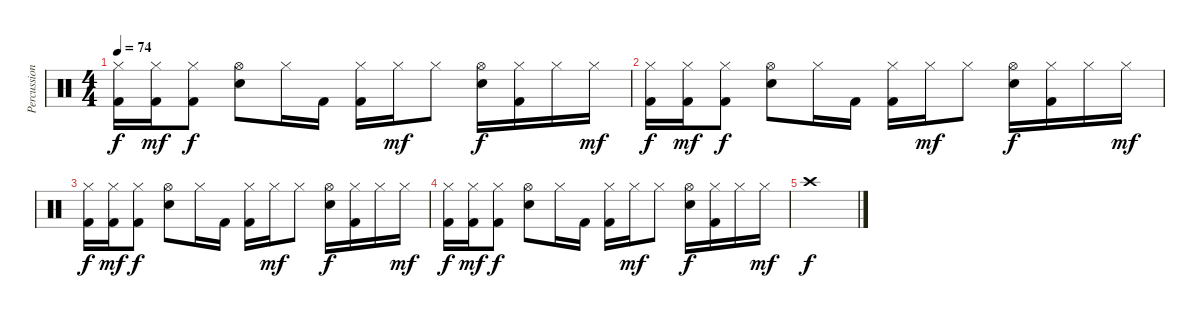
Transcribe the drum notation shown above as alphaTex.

\track ("Percussion" "Percussion") {instrument percussion}
\staff {score}
\articulation defaults
\ts (4 4)
\tempo 74
\clef neutral
\ks c
("Hi-Hat (closed)" "Kick (hit) 2").16{dy f} ("Hi-Hat (closed)" "Kick (hit) 2").16{dy mf} ("Hi-Hat (closed)" "Kick (hit) 2").8{dy f} ("Hi-Hat (open)" "Electric Snare (hit)").8 "Hi-Hat (closed)".16 "Kick (hit) 2".16 ("Hi-Hat (closed)" "Kick (hit) 2").16 "Hi-Hat (closed)".16{dy mf} "Hi-Hat (closed)".8 ("Hi-Hat (open)" "Electric Snare (hit)").16{dy f} ("Hi-Hat (closed)" "Kick (hit) 2").16 "Hi-Hat (closed)".16 "Hi-Hat (closed)".16{dy mf} |
("Hi-Hat (closed)" "Kick (hit) 2").16{dy f} ("Hi-Hat (closed)" "Kick (hit) 2").16{dy mf} ("Hi-Hat (closed)" "Kick (hit) 2").8{dy f} ("Hi-Hat (open)" "Electric Snare (hit)").8 "Hi-Hat (closed)".16 "Kick (hit) 2".16 ("Hi-Hat (closed)" "Kick (hit) 2").16 "Hi-Hat (closed)".16{dy mf} "Hi-Hat (closed)".8 ("Hi-Hat (open)" "Electric Snare (hit)").16{dy f} ("Hi-Hat (closed)" "Kick (hit) 2").16 "Hi-Hat (closed)".16 "Hi-Hat (closed)".16{dy mf} |
("Hi-Hat (closed)" "Kick (hit) 2").16{dy f} ("Hi-Hat (closed)" "Kick (hit) 2").16{dy mf} ("Hi-Hat (closed)" "Kick (hit) 2").8{dy f} ("Hi-Hat (open)" "Electric Snare (hit)").8 "Hi-Hat (closed)".16 "Kick (hit) 2".16 ("Hi-Hat (closed)" "Kick (hit) 2").16 "Hi-Hat (closed)".16{dy mf} "Hi-Hat (closed)".8 ("Hi-Hat (open)" "Electric Snare (hit)").16{dy f} ("Hi-Hat (closed)" "Kick (hit) 2").16 "Hi-Hat (closed)".16 "Hi-Hat (closed)".16{dy mf} |
("Hi-Hat (closed)" "Kick (hit) 2").16{dy f} ("Hi-Hat (closed)" "Kick (hit) 2").16{dy mf} ("Hi-Hat (closed)" "Kick (hit) 2").8{dy f} ("Hi-Hat (open)" "Electric Snare (hit)").8 "Hi-Hat (closed)".16 "Kick (hit) 2".16 ("Hi-Hat (closed)" "Kick (hit) 2").16 "Hi-Hat (closed)".16{dy mf} "Hi-Hat (closed)".8 ("Hi-Hat (open)" "Electric Snare (hit)").16{dy f} ("Hi-Hat (closed)" "Kick (hit) 2").16 "Hi-Hat (closed)".16 "Hi-Hat (closed)".16{dy mf} |
"Crash high (hit)".1{dy f}
